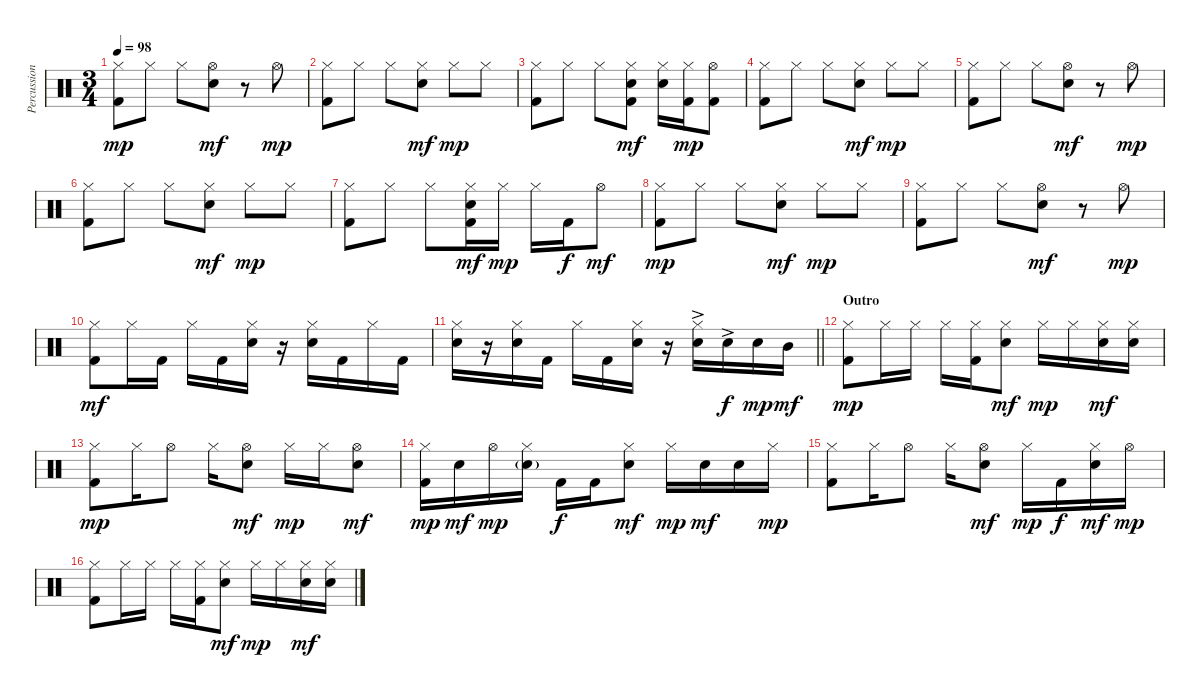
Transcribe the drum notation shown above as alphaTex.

\track ("Percussion" "Percussion") {instrument percussion}
\staff {score}
\articulation defaults
\ts (3 4)
\tempo 98
\clef neutral
\ks c
("Hi-Hat (closed)" "Kick (hit) 2").8{dy mp} "Hi-Hat (closed)".8 "Hi-Hat (closed)".8 ("Hi-Hat (open)" "Electric Snare (hit)").8{dy mf} r.8 "Hi-Hat (open)".8{dy mp} |
("Hi-Hat (closed)" "Kick (hit) 2").8 "Hi-Hat (closed)".8 "Hi-Hat (closed)".8 ("Hi-Hat (closed)" "Electric Snare (hit)").8{dy mf} "Hi-Hat (closed)".8{dy mp} "Hi-Hat (closed)".8 |
("Hi-Hat (closed)" "Kick (hit) 2").8 "Hi-Hat (closed)".8 "Hi-Hat (closed)".8 ("Hi-Hat (closed)" "Electric Snare (hit)" "Kick (hit) 2").8{dy mf} ("Hi-Hat (closed)" "Electric Snare (hit)").16 ("Hi-Hat (closed)" "Kick (hit) 2").16{dy mp} ("Hi-Hat (open)" "Kick (hit) 2").8 |
("Hi-Hat (closed)" "Kick (hit) 2").8 "Hi-Hat (closed)".8 "Hi-Hat (closed)".8 ("Hi-Hat (closed)" "Electric Snare (hit)").8{dy mf} "Hi-Hat (closed)".8{dy mp} "Hi-Hat (closed)".8 |
("Hi-Hat (closed)" "Kick (hit) 2").8 "Hi-Hat (closed)".8 "Hi-Hat (closed)".8 ("Hi-Hat (open)" "Electric Snare (hit)").8{dy mf} r.8 "Hi-Hat (open)".8{dy mp} |
("Hi-Hat (closed)" "Kick (hit) 2").8 "Hi-Hat (closed)".8 "Hi-Hat (closed)".8 ("Hi-Hat (closed)" "Electric Snare (hit)").8{dy mf} "Hi-Hat (closed)".8{dy mp} "Hi-Hat (closed)".8 |
("Hi-Hat (closed)" "Kick (hit) 2").8 "Hi-Hat (closed)".8 "Hi-Hat (closed)".8 ("Hi-Hat (closed)" "Electric Snare (hit)" "Kick (hit) 2").16{dy mf} "Hi-Hat (closed)".16{dy mp} "Hi-Hat (closed)".16 "Kick (hit) 2".16{dy f} "Hi-Hat (open)".8{dy mf} |
("Hi-Hat (closed)" "Kick (hit) 2").8{dy mp} "Hi-Hat (closed)".8 "Hi-Hat (closed)".8 ("Hi-Hat (closed)" "Electric Snare (hit)").8{dy mf} "Hi-Hat (closed)".8{dy mp} "Hi-Hat (closed)".8 |
("Hi-Hat (closed)" "Kick (hit) 2").8 "Hi-Hat (closed)".8 "Hi-Hat (closed)".8 ("Hi-Hat (open)" "Electric Snare (hit)").8{dy mf} r.8 "Hi-Hat (open)".8{dy mp} |
("Hi-Hat (closed)" "Kick (hit) 2").8{dy mf} "Hi-Hat (closed)".16 "Kick (hit) 2".16 "Hi-Hat (closed)".16 "Kick (hit) 2".16 ("Hi-Hat (closed)" "Electric Snare (hit)").16 r.16 ("Hi-Hat (closed)" "Electric Snare (hit)").16 "Kick (hit) 2".16 "Hi-Hat (closed)".16 "Kick (hit) 2".16 |
\barLineRight lightlight
("Hi-Hat (closed)" "Electric Snare (hit)").16 r.16 ("Hi-Hat (closed)" "Electric Snare (hit)").16 "Kick (hit) 2".16 "Hi-Hat (closed)".16 "Kick (hit) 2".16 ("Hi-Hat (closed)" "Electric Snare (hit)").16 r.16 ("Hi-Hat (closed)" "Electric Snare (hit)"{ac}).16 "Electric Snare (hit)"{ac}.16{dy f} "Electric Snare (hit)".16{dy mp} "Mid Tom (hit)".16{dy mf} |
\section ("" "Outro")
("Hi-Hat (closed)" "Kick (hit) 2").8{dy mp} "Hi-Hat (closed)".16 "Hi-Hat (closed)".16 "Hi-Hat (closed)".16 ("Hi-Hat (closed)" "Kick (hit) 2").16 ("Hi-Hat (closed)" "Electric Snare (hit)").8{dy mf} "Hi-Hat (closed)".16{dy mp} "Hi-Hat (closed)".16 ("Hi-Hat (closed)" "Electric Snare (hit)").16{dy mf} ("Hi-Hat (closed)" "Electric Snare (hit)").16 |
("Hi-Hat (closed)" "Kick (hit) 2").8{dy mp} "Hi-Hat (closed)".16 "Hi-Hat (open)".8 "Hi-Hat (closed)".16 ("Hi-Hat (open)" "Electric Snare (hit)").8{dy mf} "Hi-Hat (closed)".16{dy mp} "Hi-Hat (closed)".16 ("Hi-Hat (open)" "Electric Snare (hit)").8{dy mf} |
("Hi-Hat (closed)" "Kick (hit) 2").16{dy mp} "Electric Snare (hit)".16{dy mf} "Hi-Hat (open)".16{dy mp} ("Hi-Hat (closed)" "Electric Snare (hit)"{g}).16 "Kick (hit) 2".16{dy f} "Kick (hit) 2".16 ("Hi-Hat (closed)" "Electric Snare (hit)").8{dy mf} "Hi-Hat (closed)".16{dy mp} "Electric Snare (hit)".16{dy mf} "Electric Snare (hit)".16 "Hi-Hat (closed)".16{dy mp} |
("Hi-Hat (closed)" "Kick (hit) 2").8 "Hi-Hat (closed)".16 "Hi-Hat (open)".8 "Hi-Hat (closed)".16 ("Hi-Hat (open)" "Electric Snare (hit)").8{dy mf} "Hi-Hat (closed)".16{dy mp} "Kick (hit) 2".16{dy f} ("Hi-Hat (closed)" "Electric Snare (hit)").16{dy mf} "Hi-Hat (open)".16{dy mp} |
("Hi-Hat (closed)" "Kick (hit) 2").8 "Hi-Hat (closed)".16 "Hi-Hat (closed)".16 "Hi-Hat (closed)".16 ("Hi-Hat (closed)" "Kick (hit) 2").16 ("Hi-Hat (closed)" "Electric Snare (hit)").8{dy mf} "Hi-Hat (closed)".16{dy mp} "Hi-Hat (closed)".16 ("Hi-Hat (closed)" "Electric Snare (hit)").16{dy mf} ("Hi-Hat (closed)" "Electric Snare (hit)").16
